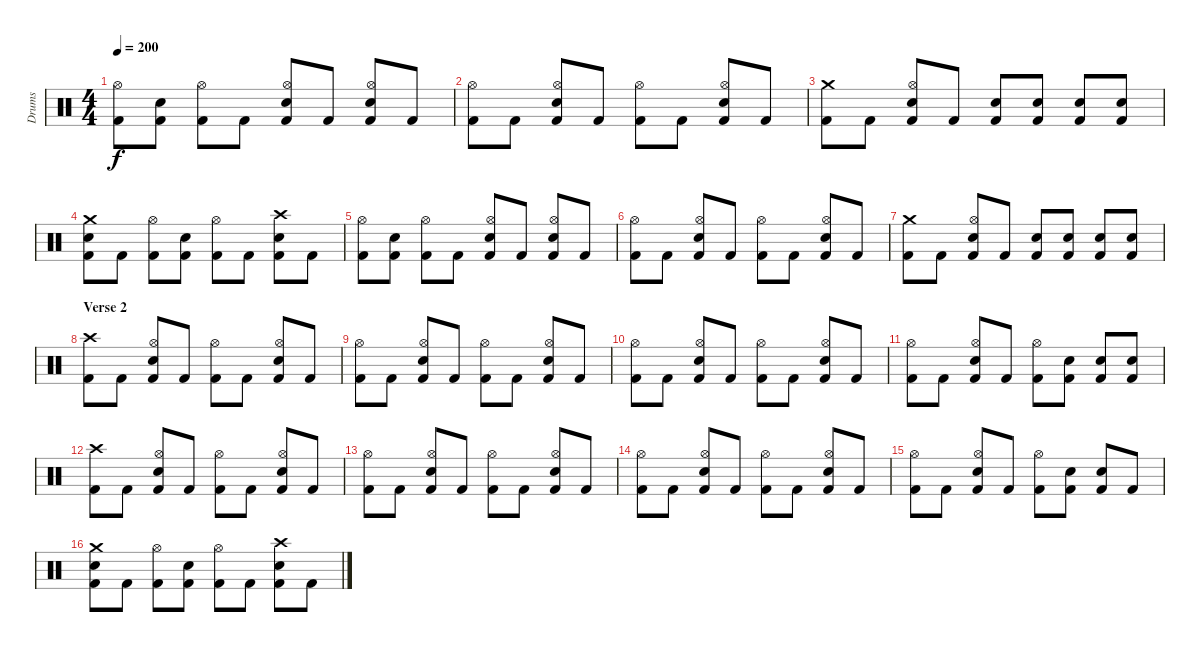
\track ("Drums" "Drums") {instrument percussion}
\staff {score}
\articulation defaults
\ts (4 4)
\tempo 200
\clef neutral
\ks c
("Kick (hit) 2" "Hi-Hat (open)").8{dy f} ("Kick (hit) 2" "Snare (hit) 2").8 ("Kick (hit) 2" "Hi-Hat (open)").8 "Kick (hit) 2".8 ("Kick (hit) 2" "Snare (hit) 2" "Hi-Hat (open)").8 "Kick (hit) 2".8 ("Kick (hit) 2" "Snare (hit) 2" "Hi-Hat (open)").8 "Kick (hit) 2".8 |
("Kick (hit) 2" "Hi-Hat (open)").8 "Kick (hit) 2".8 ("Kick (hit) 2" "Snare (hit) 2" "Hi-Hat (open)").8 "Kick (hit) 2".8 ("Kick (hit) 2" "Hi-Hat (open)").8 "Kick (hit) 2".8 ("Kick (hit) 2" "Snare (hit) 2" "Hi-Hat (open)").8 "Kick (hit) 2".8 |
("Kick (hit) 2" "Crash medium (hit)").8 "Kick (hit) 2".8 ("Kick (hit) 2" "Snare (hit) 2" "Hi-Hat (open)").8 "Kick (hit) 2".8 ("Kick (hit) 2" "Snare (hit) 2").8 ("Kick (hit) 2" "Snare (hit) 2").8 ("Kick (hit) 2" "Snare (hit) 2").8 ("Kick (hit) 2" "Snare (hit) 2").8 |
("Kick (hit) 2" "Snare (hit) 2" "Crash medium (hit)").8 "Kick (hit) 2".8 ("Kick (hit) 2" "Hi-Hat (open)").8 ("Kick (hit) 2" "Snare (hit) 2").8 ("Kick (hit) 2" "Hi-Hat (open)").8 "Kick (hit) 2".8 ("Kick (hit) 2" "Snare (hit) 2" "Crash high (hit)").8 "Kick (hit) 2".8 |
("Kick (hit) 2" "Hi-Hat (open)").8 ("Kick (hit) 2" "Snare (hit) 2").8 ("Kick (hit) 2" "Hi-Hat (open)").8 "Kick (hit) 2".8 ("Kick (hit) 2" "Snare (hit) 2" "Hi-Hat (open)").8 "Kick (hit) 2".8 ("Kick (hit) 2" "Snare (hit) 2" "Hi-Hat (open)").8 "Kick (hit) 2".8 |
("Kick (hit) 2" "Hi-Hat (open)").8 "Kick (hit) 2".8 ("Kick (hit) 2" "Snare (hit) 2" "Hi-Hat (open)").8 "Kick (hit) 2".8 ("Kick (hit) 2" "Hi-Hat (open)").8 "Kick (hit) 2".8 ("Kick (hit) 2" "Snare (hit) 2" "Hi-Hat (open)").8 "Kick (hit) 2".8 |
("Kick (hit) 2" "Crash medium (hit)").8 "Kick (hit) 2".8 ("Kick (hit) 2" "Snare (hit) 2" "Hi-Hat (open)").8 "Kick (hit) 2".8 ("Kick (hit) 2" "Snare (hit) 2").8 ("Kick (hit) 2" "Snare (hit) 2").8 ("Kick (hit) 2" "Snare (hit) 2").8 ("Kick (hit) 2" "Snare (hit) 2").8 |
\section ("" "Verse 2")
("Kick (hit) 2" "Crash high (hit)").8 "Kick (hit) 2".8 ("Kick (hit) 2" "Snare (hit) 2" "Hi-Hat (open)").8 "Kick (hit) 2".8 ("Kick (hit) 2" "Hi-Hat (open)").8 "Kick (hit) 2".8 ("Kick (hit) 2" "Snare (hit) 2" "Hi-Hat (open)").8 "Kick (hit) 2".8 |
("Kick (hit) 2" "Hi-Hat (open)").8 "Kick (hit) 2".8 ("Kick (hit) 2" "Snare (hit) 2" "Hi-Hat (open)").8 "Kick (hit) 2".8 ("Kick (hit) 2" "Hi-Hat (open)").8 "Kick (hit) 2".8 ("Kick (hit) 2" "Snare (hit) 2" "Hi-Hat (open)").8 "Kick (hit) 2".8 |
("Kick (hit) 2" "Hi-Hat (open)").8 "Kick (hit) 2".8 ("Kick (hit) 2" "Snare (hit) 2" "Hi-Hat (open)").8 "Kick (hit) 2".8 ("Kick (hit) 2" "Hi-Hat (open)").8 "Kick (hit) 2".8 ("Kick (hit) 2" "Snare (hit) 2" "Hi-Hat (open)").8 "Kick (hit) 2".8 |
("Kick (hit) 2" "Hi-Hat (open)").8 "Kick (hit) 2".8 ("Kick (hit) 2" "Snare (hit) 2" "Hi-Hat (open)").8 "Kick (hit) 2".8 ("Kick (hit) 2" "Hi-Hat (open)").8 ("Kick (hit) 2" "Snare (hit) 2").8 ("Kick (hit) 2" "Snare (hit) 2").8 ("Kick (hit) 2" "Snare (hit) 2").8 |
("Kick (hit) 2" "Crash high (hit)").8 "Kick (hit) 2".8 ("Kick (hit) 2" "Snare (hit) 2" "Hi-Hat (open)").8 "Kick (hit) 2".8 ("Kick (hit) 2" "Hi-Hat (open)").8 "Kick (hit) 2".8 ("Kick (hit) 2" "Snare (hit) 2" "Hi-Hat (open)").8 "Kick (hit) 2".8 |
("Kick (hit) 2" "Hi-Hat (open)").8 "Kick (hit) 2".8 ("Kick (hit) 2" "Snare (hit) 2" "Hi-Hat (open)").8 "Kick (hit) 2".8 ("Kick (hit) 2" "Hi-Hat (open)").8 "Kick (hit) 2".8 ("Kick (hit) 2" "Snare (hit) 2" "Hi-Hat (open)").8 "Kick (hit) 2".8 |
("Kick (hit) 2" "Hi-Hat (open)").8 "Kick (hit) 2".8 ("Kick (hit) 2" "Snare (hit) 2" "Hi-Hat (open)").8 "Kick (hit) 2".8 ("Kick (hit) 2" "Hi-Hat (open)").8 "Kick (hit) 2".8 ("Kick (hit) 2" "Snare (hit) 2" "Hi-Hat (open)").8 "Kick (hit) 2".8 |
("Kick (hit) 2" "Hi-Hat (open)").8 "Kick (hit) 2".8 ("Kick (hit) 2" "Snare (hit) 2" "Hi-Hat (open)").8 "Kick (hit) 2".8 ("Kick (hit) 2" "Hi-Hat (open)").8 ("Kick (hit) 2" "Snare (hit) 2").8 ("Kick (hit) 2" "Snare (hit) 2").8 "Kick (hit) 2".8 |
("Kick (hit) 2" "Snare (hit) 2" "Crash medium (hit)").8 "Kick (hit) 2".8 ("Kick (hit) 2" "Hi-Hat (open)").8 ("Kick (hit) 2" "Snare (hit) 2").8 ("Kick (hit) 2" "Hi-Hat (open)").8 "Kick (hit) 2".8 ("Kick (hit) 2" "Snare (hit) 2" "Crash high (hit)").8 "Kick (hit) 2".8
